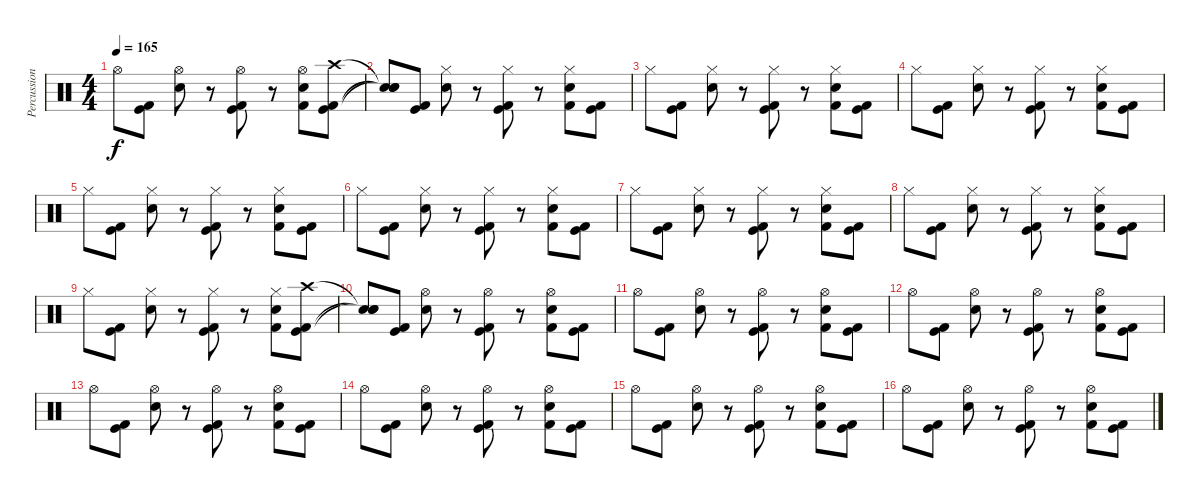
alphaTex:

\track ("Percussions" "Percussion") {instrument percussion}
\staff {score}
\articulation defaults
\ts (4 4)
\tempo 165
\clef neutral
\ks c "Hi-Hat (open)".8{dy f}
("Kick (hit) 2" "Kick (hit)").8 ("Snare (hit) 2" "Hi-Hat (open)").8 r.8 ("Kick (hit) 2" "Kick (hit)" "Hi-Hat (open)").8 r.8 ("Kick (hit) 2" "Snare (hit) 2" "Hi-Hat (open)").8 ("Kick (hit) 2" "Kick (hit)" "Crash high (hit)").8 |
("Snare (hit)"{t} "Snare (hit)"{t} "Snare (hit)"{t}).8 ("Kick (hit) 2" "Kick (hit)").8 ("Snare (hit) 2" "Hi-Hat (closed)").8 r.8 ("Kick (hit) 2" "Kick (hit)" "Hi-Hat (closed)").8 r.8 ("Kick (hit) 2" "Snare (hit) 2" "Hi-Hat (closed)").8 ("Kick (hit) 2" "Kick (hit)").8 |
"Hi-Hat (closed)".8 ("Kick (hit) 2" "Kick (hit)").8 ("Snare (hit) 2" "Hi-Hat (closed)").8 r.8 ("Kick (hit) 2" "Kick (hit)" "Hi-Hat (closed)").8 r.8 ("Kick (hit) 2" "Snare (hit) 2" "Hi-Hat (closed)").8 ("Kick (hit) 2" "Kick (hit)").8 |
"Hi-Hat (closed)".8 ("Kick (hit) 2" "Kick (hit)").8 ("Snare (hit) 2" "Hi-Hat (closed)").8 r.8 ("Kick (hit) 2" "Kick (hit)" "Hi-Hat (closed)").8 r.8 ("Kick (hit) 2" "Snare (hit) 2" "Hi-Hat (closed)").8 ("Kick (hit) 2" "Kick (hit)").8 |
"Hi-Hat (closed)".8 ("Kick (hit) 2" "Kick (hit)").8 ("Snare (hit) 2" "Hi-Hat (closed)").8 r.8 ("Kick (hit) 2" "Kick (hit)" "Hi-Hat (closed)").8 r.8 ("Kick (hit) 2" "Snare (hit) 2" "Hi-Hat (closed)").8 ("Kick (hit) 2" "Kick (hit)").8 |
"Hi-Hat (closed)".8 ("Kick (hit) 2" "Kick (hit)").8 ("Snare (hit) 2" "Hi-Hat (closed)").8 r.8 ("Kick (hit) 2" "Kick (hit)" "Hi-Hat (closed)").8 r.8 ("Kick (hit) 2" "Snare (hit) 2" "Hi-Hat (closed)").8 ("Kick (hit) 2" "Kick (hit)").8 |
"Hi-Hat (closed)".8 ("Kick (hit) 2" "Kick (hit)").8 ("Snare (hit) 2" "Hi-Hat (closed)").8 r.8 ("Kick (hit) 2" "Kick (hit)" "Hi-Hat (closed)").8 r.8 ("Kick (hit) 2" "Snare (hit) 2" "Hi-Hat (closed)").8 ("Kick (hit) 2" "Kick (hit)").8 |
"Hi-Hat (closed)".8 ("Kick (hit) 2" "Kick (hit)").8 ("Snare (hit) 2" "Hi-Hat (closed)").8 r.8 ("Kick (hit) 2" "Kick (hit)" "Hi-Hat (closed)").8 r.8 ("Kick (hit) 2" "Snare (hit) 2" "Hi-Hat (closed)").8 ("Kick (hit) 2" "Kick (hit)").8 |
"Hi-Hat (closed)".8 ("Kick (hit) 2" "Kick (hit)").8 ("Snare (hit) 2" "Hi-Hat (closed)").8 r.8 ("Kick (hit) 2" "Kick (hit)" "Hi-Hat (closed)").8 r.8 ("Kick (hit) 2" "Snare (hit) 2" "Hi-Hat (closed)").8 ("Kick (hit) 2" "Kick (hit)" "Crash high (hit)").8 |
("Snare (hit)"{t} "Snare (hit)"{t} "Snare (hit)"{t}).8 ("Kick (hit) 2" "Kick (hit)").8 ("Snare (hit) 2" "Hi-Hat (open)").8 r.8 ("Kick (hit) 2" "Kick (hit)" "Hi-Hat (open)").8 r.8 ("Kick (hit) 2" "Snare (hit) 2" "Hi-Hat (open)").8 ("Kick (hit) 2" "Kick (hit)").8 |
"Hi-Hat (open)".8 ("Kick (hit) 2" "Kick (hit)").8 ("Snare (hit) 2" "Hi-Hat (open)").8 r.8 ("Kick (hit) 2" "Kick (hit)" "Hi-Hat (open)").8 r.8 ("Kick (hit) 2" "Snare (hit) 2" "Hi-Hat (open)").8 ("Kick (hit) 2" "Kick (hit)").8 |
"Hi-Hat (open)".8 ("Kick (hit) 2" "Kick (hit)").8 ("Snare (hit) 2" "Hi-Hat (open)").8 r.8 ("Kick (hit) 2" "Kick (hit)" "Hi-Hat (open)").8 r.8 ("Kick (hit) 2" "Snare (hit) 2" "Hi-Hat (open)").8 ("Kick (hit) 2" "Kick (hit)").8 |
"Hi-Hat (open)".8 ("Kick (hit) 2" "Kick (hit)").8 ("Snare (hit) 2" "Hi-Hat (open)").8 r.8 ("Kick (hit) 2" "Kick (hit)" "Hi-Hat (open)").8 r.8 ("Kick (hit) 2" "Snare (hit) 2" "Hi-Hat (open)").8 ("Kick (hit) 2" "Kick (hit)").8 |
"Hi-Hat (open)".8 ("Kick (hit) 2" "Kick (hit)").8 ("Snare (hit) 2" "Hi-Hat (open)").8 r.8 ("Kick (hit) 2" "Kick (hit)" "Hi-Hat (open)").8 r.8 ("Kick (hit) 2" "Snare (hit) 2" "Hi-Hat (open)").8 ("Kick (hit) 2" "Kick (hit)").8 |
"Hi-Hat (open)".8 ("Kick (hit) 2" "Kick (hit)").8 ("Snare (hit) 2" "Hi-Hat (open)").8 r.8 ("Kick (hit) 2" "Kick (hit)" "Hi-Hat (open)").8 r.8 ("Kick (hit) 2" "Snare (hit) 2" "Hi-Hat (open)").8 ("Kick (hit) 2" "Kick (hit)").8 |
"Hi-Hat (open)".8 ("Kick (hit) 2" "Kick (hit)").8 ("Snare (hit) 2" "Hi-Hat (open)").8 r.8 ("Kick (hit) 2" "Kick (hit)" "Hi-Hat (open)").8 r.8 ("Kick (hit) 2" "Snare (hit) 2" "Hi-Hat (open)").8 ("Kick (hit) 2" "Kick (hit)").8
